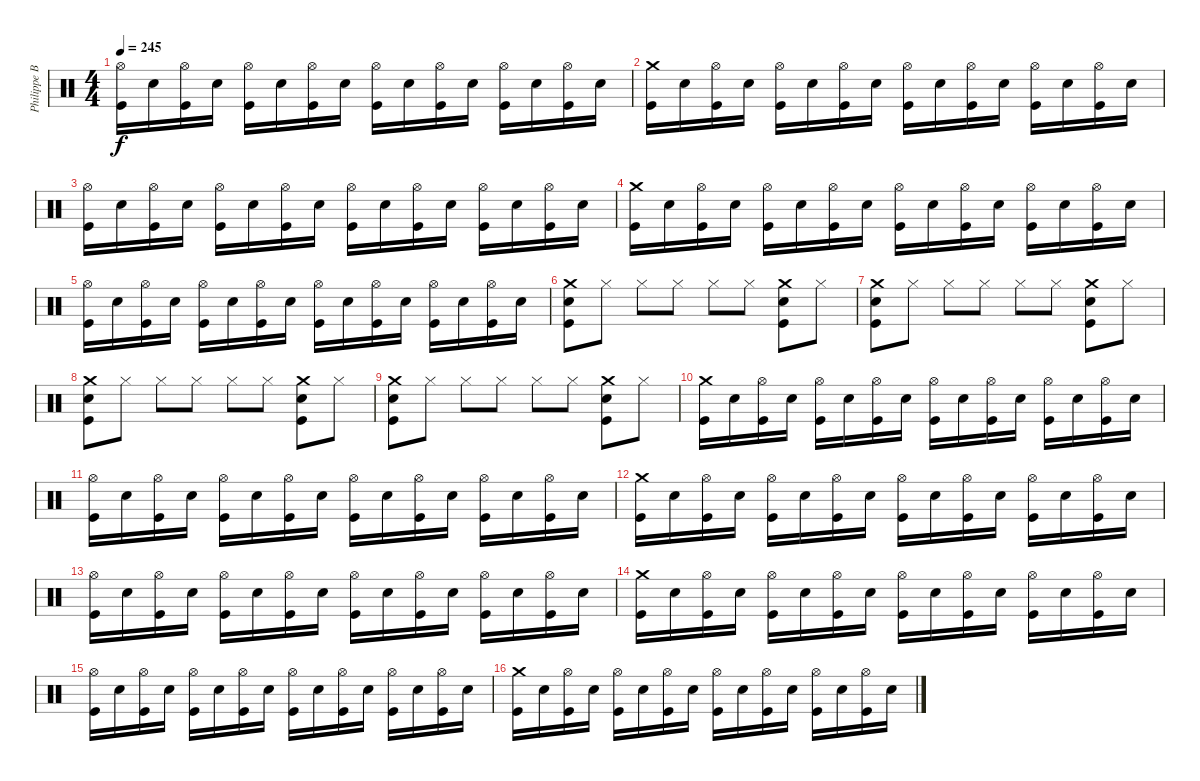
\track ("Philippe Boucher" "Philippe B") {instrument percussion}
\staff {score}
\articulation defaults
\ts (4 4)
\tempo 245
\clef neutral
\ks c
("Hi-Hat (open)" "Kick (hit)").16{dy f} "Electric Snare (hit)".16 ("Hi-Hat (open)" "Kick (hit)").16 "Electric Snare (hit)".16 ("Hi-Hat (open)" "Kick (hit)").16 "Electric Snare (hit)".16 ("Hi-Hat (open)" "Kick (hit)").16 "Electric Snare (hit)".16 ("Hi-Hat (open)" "Kick (hit)").16 "Electric Snare (hit)".16 ("Hi-Hat (open)" "Kick (hit)").16 "Electric Snare (hit)".16 ("Hi-Hat (open)" "Kick (hit)").16 "Electric Snare (hit)".16 ("Hi-Hat (open)" "Kick (hit)").16 "Electric Snare (hit)".16 |
("Crash medium (hit)" "Kick (hit)").16 "Electric Snare (hit)".16 ("Hi-Hat (open)" "Kick (hit)").16 "Electric Snare (hit)".16 ("Hi-Hat (open)" "Kick (hit)").16 "Electric Snare (hit)".16 ("Hi-Hat (open)" "Kick (hit)").16 "Electric Snare (hit)".16 ("Hi-Hat (open)" "Kick (hit)").16 "Electric Snare (hit)".16 ("Hi-Hat (open)" "Kick (hit)").16 "Electric Snare (hit)".16 ("Hi-Hat (open)" "Kick (hit)").16 "Electric Snare (hit)".16 ("Hi-Hat (open)" "Kick (hit)").16 "Electric Snare (hit)".16 |
("Hi-Hat (open)" "Kick (hit)").16 "Electric Snare (hit)".16 ("Hi-Hat (open)" "Kick (hit)").16 "Electric Snare (hit)".16 ("Hi-Hat (open)" "Kick (hit)").16 "Electric Snare (hit)".16 ("Hi-Hat (open)" "Kick (hit)").16 "Electric Snare (hit)".16 ("Hi-Hat (open)" "Kick (hit)").16 "Electric Snare (hit)".16 ("Hi-Hat (open)" "Kick (hit)").16 "Electric Snare (hit)".16 ("Hi-Hat (open)" "Kick (hit)").16 "Electric Snare (hit)".16 ("Hi-Hat (open)" "Kick (hit)").16 "Electric Snare (hit)".16 |
("Crash medium (hit)" "Kick (hit)").16 "Electric Snare (hit)".16 ("Hi-Hat (open)" "Kick (hit)").16 "Electric Snare (hit)".16 ("Hi-Hat (open)" "Kick (hit)").16 "Electric Snare (hit)".16 ("Hi-Hat (open)" "Kick (hit)").16 "Electric Snare (hit)".16 ("Hi-Hat (open)" "Kick (hit)").16 "Electric Snare (hit)".16 ("Hi-Hat (open)" "Kick (hit)").16 "Electric Snare (hit)".16 ("Hi-Hat (open)" "Kick (hit)").16 "Electric Snare (hit)".16 ("Hi-Hat (open)" "Kick (hit)").16 "Electric Snare (hit)".16 |
("Hi-Hat (open)" "Kick (hit)").16 "Electric Snare (hit)".16 ("Hi-Hat (open)" "Kick (hit)").16 "Electric Snare (hit)".16 ("Hi-Hat (open)" "Kick (hit)").16 "Electric Snare (hit)".16 ("Hi-Hat (open)" "Kick (hit)").16 "Electric Snare (hit)".16 ("Hi-Hat (open)" "Kick (hit)").16 "Electric Snare (hit)".16 ("Hi-Hat (open)" "Kick (hit)").16 "Electric Snare (hit)".16 ("Hi-Hat (open)" "Kick (hit)").16 "Electric Snare (hit)".16 ("Hi-Hat (open)" "Kick (hit)").16 "Electric Snare (hit)".16 |
("Crash medium (hit)" "Electric Snare (hit)" "Kick (hit)").8 "Hi-Hat (closed)".8 "Hi-Hat (closed)".8 "Hi-Hat (closed)".8 "Hi-Hat (closed)".8 "Hi-Hat (closed)".8 ("Crash medium (hit)" "Electric Snare (hit)" "Kick (hit)").8 "Hi-Hat (closed)".8 |
("Crash medium (hit)" "Electric Snare (hit)" "Kick (hit)").8 "Hi-Hat (closed)".8 "Hi-Hat (closed)".8 "Hi-Hat (closed)".8 "Hi-Hat (closed)".8 "Hi-Hat (closed)".8 ("Crash medium (hit)" "Electric Snare (hit)" "Kick (hit)").8 "Hi-Hat (closed)".8 |
("Crash medium (hit)" "Electric Snare (hit)" "Kick (hit)").8 "Hi-Hat (closed)".8 "Hi-Hat (closed)".8 "Hi-Hat (closed)".8 "Hi-Hat (closed)".8 "Hi-Hat (closed)".8 ("Crash medium (hit)" "Electric Snare (hit)" "Kick (hit)").8 "Hi-Hat (closed)".8 |
("Crash medium (hit)" "Electric Snare (hit)" "Kick (hit)").8 "Hi-Hat (closed)".8 "Hi-Hat (closed)".8 "Hi-Hat (closed)".8 "Hi-Hat (closed)".8 "Hi-Hat (closed)".8 ("Crash medium (hit)" "Electric Snare (hit)" "Kick (hit)").8 "Hi-Hat (closed)".8 |
("Crash medium (hit)" "Kick (hit)").16 "Electric Snare (hit)".16 ("Hi-Hat (open)" "Kick (hit)").16 "Electric Snare (hit)".16 ("Hi-Hat (open)" "Kick (hit)").16 "Electric Snare (hit)".16 ("Hi-Hat (open)" "Kick (hit)").16 "Electric Snare (hit)".16 ("Hi-Hat (open)" "Kick (hit)").16 "Electric Snare (hit)".16 ("Hi-Hat (open)" "Kick (hit)").16 "Electric Snare (hit)".16 ("Hi-Hat (open)" "Kick (hit)").16 "Electric Snare (hit)".16 ("Hi-Hat (open)" "Kick (hit)").16 "Electric Snare (hit)".16 |
("Hi-Hat (open)" "Kick (hit)").16 "Electric Snare (hit)".16 ("Hi-Hat (open)" "Kick (hit)").16 "Electric Snare (hit)".16 ("Hi-Hat (open)" "Kick (hit)").16 "Electric Snare (hit)".16 ("Hi-Hat (open)" "Kick (hit)").16 "Electric Snare (hit)".16 ("Hi-Hat (open)" "Kick (hit)").16 "Electric Snare (hit)".16 ("Hi-Hat (open)" "Kick (hit)").16 "Electric Snare (hit)".16 ("Hi-Hat (open)" "Kick (hit)").16 "Electric Snare (hit)".16 ("Hi-Hat (open)" "Kick (hit)").16 "Electric Snare (hit)".16 |
("Crash medium (hit)" "Kick (hit)").16 "Electric Snare (hit)".16 ("Hi-Hat (open)" "Kick (hit)").16 "Electric Snare (hit)".16 ("Hi-Hat (open)" "Kick (hit)").16 "Electric Snare (hit)".16 ("Hi-Hat (open)" "Kick (hit)").16 "Electric Snare (hit)".16 ("Hi-Hat (open)" "Kick (hit)").16 "Electric Snare (hit)".16 ("Hi-Hat (open)" "Kick (hit)").16 "Electric Snare (hit)".16 ("Hi-Hat (open)" "Kick (hit)").16 "Electric Snare (hit)".16 ("Hi-Hat (open)" "Kick (hit)").16 "Electric Snare (hit)".16 |
("Hi-Hat (open)" "Kick (hit)").16 "Electric Snare (hit)".16 ("Hi-Hat (open)" "Kick (hit)").16 "Electric Snare (hit)".16 ("Hi-Hat (open)" "Kick (hit)").16 "Electric Snare (hit)".16 ("Hi-Hat (open)" "Kick (hit)").16 "Electric Snare (hit)".16 ("Hi-Hat (open)" "Kick (hit)").16 "Electric Snare (hit)".16 ("Hi-Hat (open)" "Kick (hit)").16 "Electric Snare (hit)".16 ("Hi-Hat (open)" "Kick (hit)").16 "Electric Snare (hit)".16 ("Hi-Hat (open)" "Kick (hit)").16 "Electric Snare (hit)".16 |
("Crash medium (hit)" "Kick (hit)").16 "Electric Snare (hit)".16 ("Hi-Hat (open)" "Kick (hit)").16 "Electric Snare (hit)".16 ("Hi-Hat (open)" "Kick (hit)").16 "Electric Snare (hit)".16 ("Hi-Hat (open)" "Kick (hit)").16 "Electric Snare (hit)".16 ("Hi-Hat (open)" "Kick (hit)").16 "Electric Snare (hit)".16 ("Hi-Hat (open)" "Kick (hit)").16 "Electric Snare (hit)".16 ("Hi-Hat (open)" "Kick (hit)").16 "Electric Snare (hit)".16 ("Hi-Hat (open)" "Kick (hit)").16 "Electric Snare (hit)".16 |
("Hi-Hat (open)" "Kick (hit)").16 "Electric Snare (hit)".16 ("Hi-Hat (open)" "Kick (hit)").16 "Electric Snare (hit)".16 ("Hi-Hat (open)" "Kick (hit)").16 "Electric Snare (hit)".16 ("Hi-Hat (open)" "Kick (hit)").16 "Electric Snare (hit)".16 ("Hi-Hat (open)" "Kick (hit)").16 "Electric Snare (hit)".16 ("Hi-Hat (open)" "Kick (hit)").16 "Electric Snare (hit)".16 ("Hi-Hat (open)" "Kick (hit)").16 "Electric Snare (hit)".16 ("Hi-Hat (open)" "Kick (hit)").16 "Electric Snare (hit)".16 |
("Crash medium (hit)" "Kick (hit)").16 "Electric Snare (hit)".16 ("Hi-Hat (open)" "Kick (hit)").16 "Electric Snare (hit)".16 ("Hi-Hat (open)" "Kick (hit)").16 "Electric Snare (hit)".16 ("Hi-Hat (open)" "Kick (hit)").16 "Electric Snare (hit)".16 ("Hi-Hat (open)" "Kick (hit)").16 "Electric Snare (hit)".16 ("Hi-Hat (open)" "Kick (hit)").16 "Electric Snare (hit)".16 ("Hi-Hat (open)" "Kick (hit)").16 "Electric Snare (hit)".16 ("Hi-Hat (open)" "Kick (hit)").16 "Electric Snare (hit)".16
